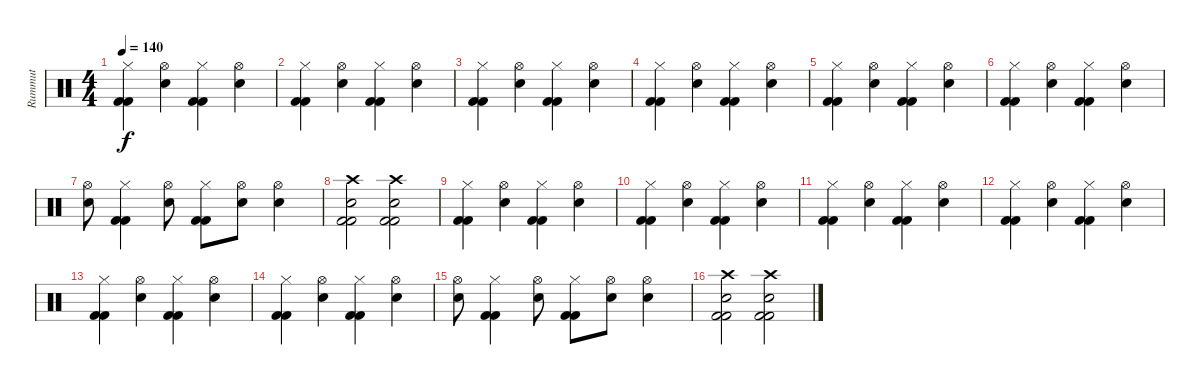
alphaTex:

\track ("Rummut" "Rummut") {instrument percussion}
\staff {score}
\articulation defaults
\ts (4 4)
\tempo 140
\clef neutral
\ks c
("Hi-Hat (closed)" "Kick (hit) 2" "Kick (hit) 2").4{dy f} ("Hi-Hat (open)" "Electric Snare (hit)").4 ("Hi-Hat (closed)" "Kick (hit) 2" "Kick (hit) 2").4 ("Hi-Hat (open)" "Electric Snare (hit)").4 |
("Hi-Hat (closed)" "Kick (hit) 2" "Kick (hit) 2").4 ("Hi-Hat (open)" "Electric Snare (hit)").4 ("Hi-Hat (closed)" "Kick (hit) 2" "Kick (hit) 2").4 ("Hi-Hat (open)" "Electric Snare (hit)").4 |
("Hi-Hat (closed)" "Kick (hit) 2" "Kick (hit) 2").4 ("Hi-Hat (open)" "Electric Snare (hit)").4 ("Hi-Hat (closed)" "Kick (hit) 2" "Kick (hit) 2").4 ("Hi-Hat (open)" "Electric Snare (hit)").4 |
("Hi-Hat (closed)" "Kick (hit) 2" "Kick (hit) 2").4 ("Hi-Hat (open)" "Electric Snare (hit)").4 ("Hi-Hat (closed)" "Kick (hit) 2" "Kick (hit) 2").4 ("Hi-Hat (open)" "Electric Snare (hit)").4 |
("Hi-Hat (closed)" "Kick (hit) 2" "Kick (hit) 2").4 ("Hi-Hat (open)" "Electric Snare (hit)").4 ("Hi-Hat (closed)" "Kick (hit) 2" "Kick (hit) 2").4 ("Hi-Hat (open)" "Electric Snare (hit)").4 |
("Hi-Hat (closed)" "Kick (hit) 2" "Kick (hit) 2").4 ("Hi-Hat (open)" "Electric Snare (hit)").4 ("Hi-Hat (closed)" "Kick (hit) 2" "Kick (hit) 2").4 ("Hi-Hat (open)" "Electric Snare (hit)").4 |
("Hi-Hat (open)" "Electric Snare (hit)").8 ("Hi-Hat (closed)" "Kick (hit) 2" "Kick (hit) 2").4 ("Hi-Hat (open)" "Electric Snare (hit)").8 ("Hi-Hat (closed)" "Kick (hit) 2" "Kick (hit) 2").8 ("Hi-Hat (open)" "Snare (hit) 2").8 ("Hi-Hat (open)" "Snare (hit) 2").4 |
("Crash high (hit)" "Electric Snare (hit)" "Kick (hit) 2" "Kick (hit) 2").2 ("Crash high (hit)" "Electric Snare (hit)" "Kick (hit) 2" "Kick (hit) 2").2 |
("Hi-Hat (closed)" "Kick (hit) 2" "Kick (hit) 2").4 ("Hi-Hat (open)" "Electric Snare (hit)").4 ("Hi-Hat (closed)" "Kick (hit) 2" "Kick (hit) 2").4 ("Hi-Hat (open)" "Electric Snare (hit)").4 |
("Hi-Hat (closed)" "Kick (hit) 2" "Kick (hit) 2").4 ("Hi-Hat (open)" "Electric Snare (hit)").4 ("Hi-Hat (closed)" "Kick (hit) 2" "Kick (hit) 2").4 ("Hi-Hat (open)" "Electric Snare (hit)").4 |
("Hi-Hat (closed)" "Kick (hit) 2" "Kick (hit) 2").4 ("Hi-Hat (open)" "Electric Snare (hit)").4 ("Hi-Hat (closed)" "Kick (hit) 2" "Kick (hit) 2").4 ("Hi-Hat (open)" "Electric Snare (hit)").4 |
("Hi-Hat (closed)" "Kick (hit) 2" "Kick (hit) 2").4 ("Hi-Hat (open)" "Electric Snare (hit)").4 ("Hi-Hat (closed)" "Kick (hit) 2" "Kick (hit) 2").4 ("Hi-Hat (open)" "Electric Snare (hit)").4 |
("Hi-Hat (closed)" "Kick (hit) 2" "Kick (hit) 2").4 ("Hi-Hat (open)" "Electric Snare (hit)").4 ("Hi-Hat (closed)" "Kick (hit) 2" "Kick (hit) 2").4 ("Hi-Hat (open)" "Electric Snare (hit)").4 |
("Hi-Hat (closed)" "Kick (hit) 2" "Kick (hit) 2").4 ("Hi-Hat (open)" "Electric Snare (hit)").4 ("Hi-Hat (closed)" "Kick (hit) 2" "Kick (hit) 2").4 ("Hi-Hat (open)" "Electric Snare (hit)").4 |
("Hi-Hat (open)" "Electric Snare (hit)").8 ("Hi-Hat (closed)" "Kick (hit) 2" "Kick (hit) 2").4 ("Hi-Hat (open)" "Electric Snare (hit)").8 ("Hi-Hat (closed)" "Kick (hit) 2" "Kick (hit) 2").8 ("Hi-Hat (open)" "Snare (hit) 2").8 ("Hi-Hat (open)" "Snare (hit) 2").4 |
("Crash high (hit)" "Electric Snare (hit)" "Kick (hit) 2" "Kick (hit) 2").2 ("Crash high (hit)" "Electric Snare (hit)" "Kick (hit) 2" "Kick (hit) 2").2
